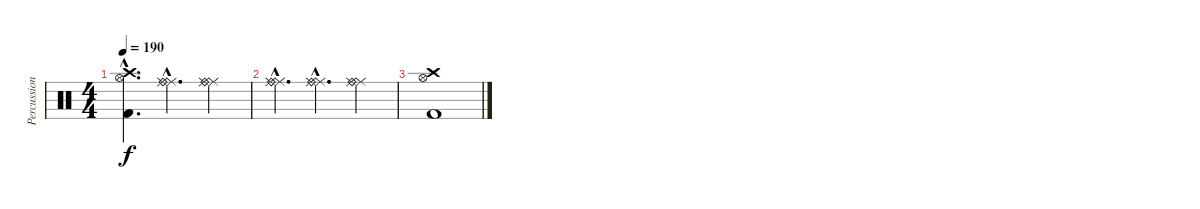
\track ("Percussioni" "Percussion") {instrument percussion}
\staff {score}
\articulation defaults
\ts (4 4)
\tempo 190
\clef neutral
\ks c
("Kick (hit) 2"{hac} "Hi-Hat (open)"{hac} "Crash high (hit)"{hac}).4{d dy f} ("Ride (middle)"{hac} "Ride (middle)"{hac} "Ride (bell)"{hac}).4{d} ("Ride (middle)" "Ride (middle)" "Ride (bell)").4 |
("Ride (middle)"{hac} "Ride (middle)"{hac} "Ride (bell)"{hac}).4{d} ("Ride (middle)"{hac} "Ride (middle)"{hac} "Ride (bell)"{hac}).4{d} ("Ride (middle)" "Ride (middle)" "Ride (bell)").4 |
("Kick (hit) 2" "Hi-Hat (open)" "Crash high (hit)").1
